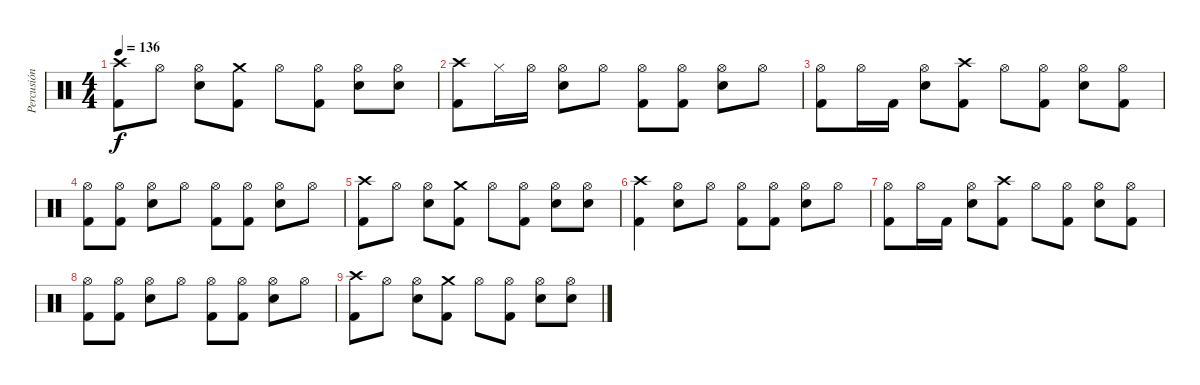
\track ("Percusión" "Percusión") {instrument percussion}
\staff {score}
\articulation defaults
\ts (4 4)
\tempo 136
\clef neutral
\ks c
("Crash high (hit)" "Kick (hit) 2").8{dy f} "Hi-Hat (open)".8 ("Hi-Hat (open)" "Snare (hit) 2").8 ("Crash medium (hit)" "Kick (hit) 2").8 "Hi-Hat (open)".8 ("Hi-Hat (open)" "Kick (hit) 2").8 ("Hi-Hat (open)" "Snare (hit) 2").8 ("Hi-Hat (open)" "Snare (hit) 2").8 |
("Crash high (hit)" "Kick (hit) 2").8 "Hi-Hat (closed)".16 "Hi-Hat (open)".16 ("Hi-Hat (open)" "Snare (hit) 2").8 "Hi-Hat (open)".8 ("Hi-Hat (open)" "Kick (hit) 2").8 ("Hi-Hat (open)" "Kick (hit) 2").8 ("Hi-Hat (open)" "Snare (hit) 2").8 "Hi-Hat (open)".8 |
("Hi-Hat (open)" "Kick (hit) 2").8 "Hi-Hat (open)".16 "Kick (hit) 2".16 ("Hi-Hat (open)" "Snare (hit) 2").8 ("Crash high (hit)" "Kick (hit) 2").8 "Hi-Hat (open)".8 ("Hi-Hat (open)" "Kick (hit) 2").8 ("Hi-Hat (open)" "Snare (hit) 2").8 ("Hi-Hat (open)" "Kick (hit) 2").8 |
("Hi-Hat (open)" "Kick (hit) 2").8 ("Hi-Hat (open)" "Kick (hit) 2").8 ("Hi-Hat (open)" "Snare (hit) 2").8 "Hi-Hat (open)".8 ("Hi-Hat (open)" "Kick (hit) 2").8 ("Hi-Hat (open)" "Kick (hit) 2").8 ("Hi-Hat (open)" "Snare (hit) 2").8 "Hi-Hat (open)".8 |
("Crash high (hit)" "Kick (hit) 2").8 "Hi-Hat (open)".8 ("Hi-Hat (open)" "Snare (hit) 2").8 ("Crash medium (hit)" "Kick (hit) 2").8 "Hi-Hat (open)".8 ("Hi-Hat (open)" "Kick (hit) 2").8 ("Hi-Hat (open)" "Snare (hit) 2").8 ("Hi-Hat (open)" "Snare (hit) 2").8 |
("Crash high (hit)" "Kick (hit) 2").4{volume 6} ("Hi-Hat (open)" "Snare (hit) 2").8 "Hi-Hat (open)".8 ("Hi-Hat (open)" "Kick (hit) 2").8 ("Hi-Hat (open)" "Kick (hit) 2").8 ("Hi-Hat (open)" "Snare (hit) 2").8 "Hi-Hat (open)".8 |
("Hi-Hat (open)" "Kick (hit) 2").8 "Hi-Hat (open)".16 "Kick (hit) 2".16 ("Hi-Hat (open)" "Snare (hit) 2").8 ("Crash high (hit)" "Kick (hit) 2").8 "Hi-Hat (open)".8 ("Hi-Hat (open)" "Kick (hit) 2").8 ("Hi-Hat (open)" "Snare (hit) 2").8 ("Hi-Hat (open)" "Kick (hit) 2").8 |
("Hi-Hat (open)" "Kick (hit) 2").8 ("Hi-Hat (open)" "Kick (hit) 2").8 ("Hi-Hat (open)" "Snare (hit) 2").8 "Hi-Hat (open)".8 ("Hi-Hat (open)" "Kick (hit) 2").8 ("Hi-Hat (open)" "Kick (hit) 2").8 ("Hi-Hat (open)" "Snare (hit) 2").8 "Hi-Hat (open)".8 |
("Crash high (hit)" "Kick (hit) 2").8 "Hi-Hat (open)".8 ("Hi-Hat (open)" "Snare (hit) 2").8 ("Crash medium (hit)" "Kick (hit) 2").8 "Hi-Hat (open)".8 ("Hi-Hat (open)" "Kick (hit) 2").8 ("Hi-Hat (open)" "Snare (hit) 2").8 ("Hi-Hat (open)" "Snare (hit) 2").8
